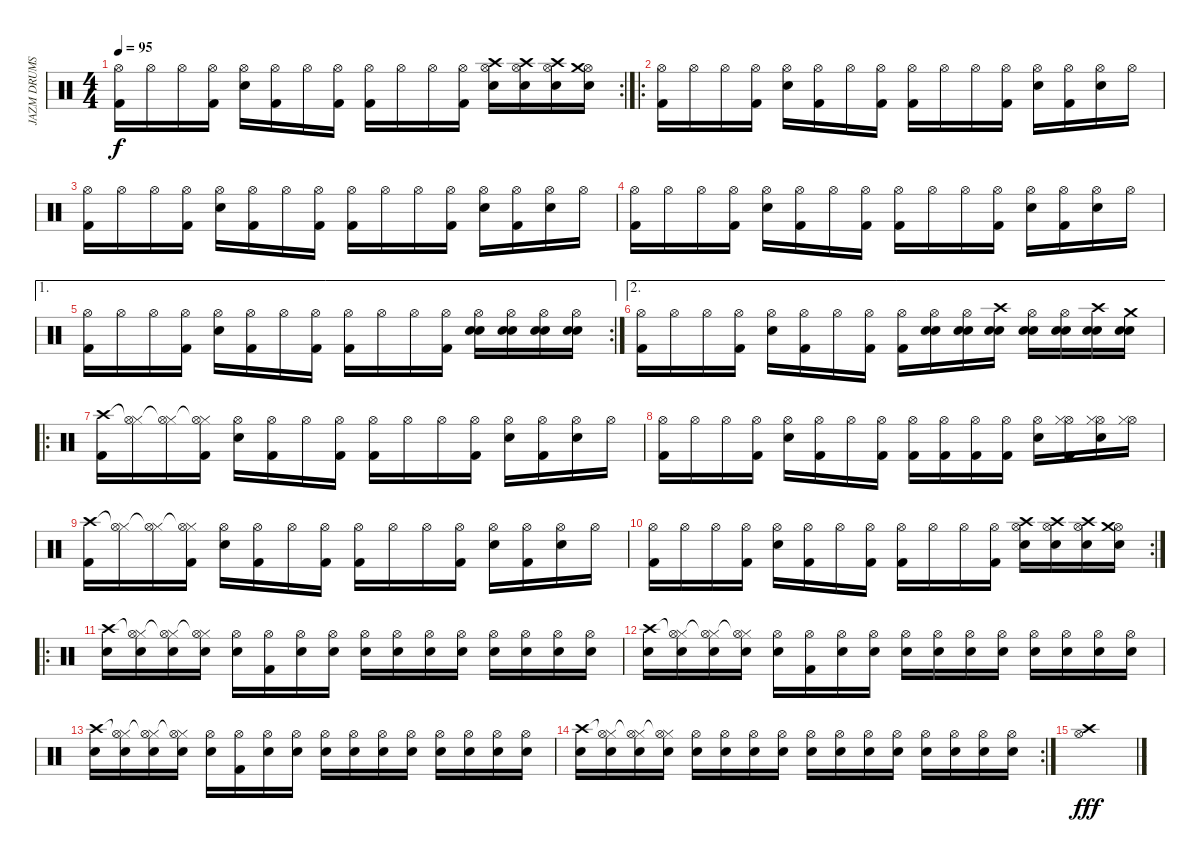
\track ("JAZM DRUMS" "JAZM DRUMS") {instrument percussion}
\staff {score}
\articulation defaults
\rc 2
\ts (4 4)
\tempo 95
\clef neutral
\ks c
("Hi-Hat (open)" "Kick (hit) 2").16{dy f} "Hi-Hat (open)".16 "Hi-Hat (open)".16 ("Hi-Hat (open)" "Kick (hit) 2").16 ("Hi-Hat (open)" "Electric Snare (hit)").16 ("Hi-Hat (open)" "Kick (hit) 2").16 "Hi-Hat (open)".16 ("Hi-Hat (open)" "Kick (hit) 2").16 ("Hi-Hat (open)" "Kick (hit) 2").16 "Hi-Hat (open)".16 "Hi-Hat (open)".16 ("Hi-Hat (open)" "Kick (hit) 2").16 ("Hi-Hat (open)" "Crash high (hit)" "Electric Snare (hit)").16 ("Hi-Hat (open)" "Crash high (hit)" "Electric Snare (hit)").16 ("Hi-Hat (open)" "Crash high (hit)" "Electric Snare (hit)").16 ("Hi-Hat (open)" "Crash medium (hit)" "Electric Snare (hit)").16 |
\ro
("Hi-Hat (open)" "Kick (hit) 2").16 "Hi-Hat (open)".16 "Hi-Hat (open)".16 ("Hi-Hat (open)" "Kick (hit) 2").16 ("Hi-Hat (open)" "Electric Snare (hit)").16 ("Hi-Hat (open)" "Kick (hit) 2").16 "Hi-Hat (open)".16 ("Hi-Hat (open)" "Kick (hit) 2").16 ("Hi-Hat (open)" "Kick (hit) 2").16 "Hi-Hat (open)".16 "Hi-Hat (open)".16 ("Hi-Hat (open)" "Kick (hit) 2").16 ("Hi-Hat (open)" "Electric Snare (hit)").16 ("Hi-Hat (open)" "Kick (hit) 2").16 ("Hi-Hat (open)" "Electric Snare (hit)").16 "Hi-Hat (open)".16 |
("Hi-Hat (open)" "Kick (hit) 2").16 "Hi-Hat (open)".16 "Hi-Hat (open)".16 ("Hi-Hat (open)" "Kick (hit) 2").16 ("Hi-Hat (open)" "Electric Snare (hit)").16 ("Hi-Hat (open)" "Kick (hit) 2").16 "Hi-Hat (open)".16 ("Hi-Hat (open)" "Kick (hit) 2").16 ("Hi-Hat (open)" "Kick (hit) 2").16 "Hi-Hat (open)".16 "Hi-Hat (open)".16 ("Hi-Hat (open)" "Kick (hit) 2").16 ("Hi-Hat (open)" "Electric Snare (hit)").16 ("Hi-Hat (open)" "Kick (hit) 2").16 ("Hi-Hat (open)" "Electric Snare (hit)").16 "Hi-Hat (open)".16 |
("Hi-Hat (open)" "Kick (hit) 2").16 "Hi-Hat (open)".16 "Hi-Hat (open)".16 ("Hi-Hat (open)" "Kick (hit) 2").16 ("Hi-Hat (open)" "Electric Snare (hit)").16 ("Hi-Hat (open)" "Kick (hit) 2").16 "Hi-Hat (open)".16 ("Hi-Hat (open)" "Kick (hit) 2").16 ("Hi-Hat (open)" "Kick (hit) 2").16 "Hi-Hat (open)".16 "Hi-Hat (open)".16 ("Hi-Hat (open)" "Kick (hit) 2").16 ("Hi-Hat (open)" "Electric Snare (hit)").16 ("Hi-Hat (open)" "Kick (hit) 2").16 ("Hi-Hat (open)" "Electric Snare (hit)").16 "Hi-Hat (open)".16 |
\ae 1
\rc 2
("Hi-Hat (open)" "Kick (hit) 2").16 "Hi-Hat (open)".16 "Hi-Hat (open)".16 ("Hi-Hat (open)" "Kick (hit) 2").16 ("Hi-Hat (open)" "Electric Snare (hit)").16 ("Hi-Hat (open)" "Kick (hit) 2").16 "Hi-Hat (open)".16 ("Hi-Hat (open)" "Kick (hit) 2").16 ("Hi-Hat (open)" "Kick (hit) 2").16 "Hi-Hat (open)".16 "Hi-Hat (open)".16 ("Hi-Hat (open)" "Kick (hit) 2").16 ("Hi-Hat (open)" "Electric Snare (hit)" "Electric Snare (hit)").16 ("Hi-Hat (open)" "Electric Snare (hit)" "Electric Snare (hit)").16 ("Hi-Hat (open)" "Electric Snare (hit)" "Electric Snare (hit)").16 ("Hi-Hat (open)" "Electric Snare (hit)" "Electric Snare (hit)").16 |
\ae 2
("Hi-Hat (open)" "Kick (hit) 2").16 "Hi-Hat (open)".16 "Hi-Hat (open)".16 ("Hi-Hat (open)" "Kick (hit) 2").16 ("Hi-Hat (open)" "Electric Snare (hit)").16 ("Hi-Hat (open)" "Kick (hit) 2").16 "Hi-Hat (open)".16 ("Hi-Hat (open)" "Kick (hit) 2").16 ("Hi-Hat (open)" "Kick (hit) 2").16 ("Hi-Hat (open)" "Electric Snare (hit)" "Electric Snare (hit)").16 ("Hi-Hat (open)" "Electric Snare (hit)" "Electric Snare (hit)").16 ("Crash high (hit)" "Electric Snare (hit)" "Electric Snare (hit)").16 ("Hi-Hat (open)" "Electric Snare (hit)" "Electric Snare (hit)").16 ("Hi-Hat (open)" "Electric Snare (hit)" "Electric Snare (hit)").16 ("Crash high (hit)" "Electric Snare (hit)" "Electric Snare (hit)").16 ("Crash medium (hit)" "Electric Snare (hit)" "Electric Snare (hit)").16 |
\ro
("Crash high (hit)" "Kick (hit) 2").16 ("Hi-Hat (closed)"{t} "Hi-Hat (open)").16 ("Hi-Hat (closed)"{t} "Hi-Hat (open)").16 ("Hi-Hat (closed)"{t} "Hi-Hat (open)" "Kick (hit) 2").16 ("Hi-Hat (open)" "Electric Snare (hit)").16 ("Hi-Hat (open)" "Kick (hit) 2").16 "Hi-Hat (open)".16 ("Hi-Hat (open)" "Kick (hit) 2").16 ("Hi-Hat (open)" "Kick (hit) 2").16 "Hi-Hat (open)".16 "Hi-Hat (open)".16 ("Hi-Hat (open)" "Kick (hit) 2").16 ("Hi-Hat (open)" "Electric Snare (hit)").16 ("Hi-Hat (open)" "Kick (hit) 2").16 ("Hi-Hat (open)" "Electric Snare (hit)").16 "Hi-Hat (open)".16 |
("Hi-Hat (open)" "Kick (hit) 2").16 "Hi-Hat (open)".16 "Hi-Hat (open)".16 ("Hi-Hat (open)" "Kick (hit) 2").16 ("Hi-Hat (open)" "Electric Snare (hit)").16 ("Hi-Hat (open)" "Kick (hit) 2").16 "Hi-Hat (open)".16 ("Hi-Hat (open)" "Kick (hit) 2").16 ("Hi-Hat (open)" "Kick (hit) 2").16 ("Hi-Hat (open)" "Kick (hit) 2").16 ("Hi-Hat (open)" "Kick (hit) 2").16 ("Hi-Hat (open)" "Kick (hit) 2").16 ("Hi-Hat (open)" "Electric Snare (hit)").16 ("Hi-Hat (open)" "Hi-Hat (closed)" "Kick (hit) 2").16 ("Hi-Hat (open)" "Hi-Hat (closed)" "Electric Snare (hit)").16 ("Hi-Hat (open)" "Hi-Hat (closed)").16 |
("Crash high (hit)" "Kick (hit) 2").16 ("Hi-Hat (closed)"{t} "Hi-Hat (open)").16 ("Hi-Hat (closed)"{t} "Hi-Hat (open)").16 ("Hi-Hat (closed)"{t} "Hi-Hat (open)" "Kick (hit) 2").16 ("Hi-Hat (open)" "Electric Snare (hit)").16 ("Hi-Hat (open)" "Kick (hit) 2").16 "Hi-Hat (open)".16 ("Hi-Hat (open)" "Kick (hit) 2").16 ("Hi-Hat (open)" "Kick (hit) 2").16 "Hi-Hat (open)".16 "Hi-Hat (open)".16 ("Hi-Hat (open)" "Kick (hit) 2").16 ("Hi-Hat (open)" "Electric Snare (hit)").16 ("Hi-Hat (open)" "Kick (hit) 2").16 ("Hi-Hat (open)" "Electric Snare (hit)").16 "Hi-Hat (open)".16 |
\rc 2
("Hi-Hat (open)" "Kick (hit) 2").16 "Hi-Hat (open)".16 "Hi-Hat (open)".16 ("Hi-Hat (open)" "Kick (hit) 2").16 ("Hi-Hat (open)" "Electric Snare (hit)").16 ("Hi-Hat (open)" "Kick (hit) 2").16 "Hi-Hat (open)".16 ("Hi-Hat (open)" "Kick (hit) 2").16 ("Hi-Hat (open)" "Kick (hit) 2").16 "Hi-Hat (open)".16 "Hi-Hat (open)".16 ("Hi-Hat (open)" "Kick (hit) 2").16 ("Hi-Hat (open)" "Crash high (hit)" "Electric Snare (hit)").16 ("Hi-Hat (open)" "Crash high (hit)" "Electric Snare (hit)").16 ("Hi-Hat (open)" "Crash high (hit)" "Electric Snare (hit)").16 ("Hi-Hat (open)" "Crash medium (hit)" "Electric Snare (hit)").16 |
\ro
("Crash high (hit)" "Electric Snare (hit)").16 ("Hi-Hat (closed)"{t} "Hi-Hat (open)" "Electric Snare (hit)").16 ("Hi-Hat (closed)"{t} "Hi-Hat (open)" "Electric Snare (hit)").16 ("Hi-Hat (closed)"{t} "Hi-Hat (open)" "Electric Snare (hit)").16 ("Hi-Hat (open)" "Electric Snare (hit)").16 ("Hi-Hat (open)" "Kick (hit) 2").16 ("Hi-Hat (open)" "Electric Snare (hit)").16 ("Hi-Hat (open)" "Electric Snare (hit)").16 ("Hi-Hat (open)" "Electric Snare (hit)").16 ("Hi-Hat (open)" "Electric Snare (hit)").16 ("Hi-Hat (open)" "Electric Snare (hit)").16 ("Hi-Hat (open)" "Electric Snare (hit)").16 ("Hi-Hat (open)" "Electric Snare (hit)").16 ("Hi-Hat (open)" "Electric Snare (hit)").16 ("Hi-Hat (open)" "Electric Snare (hit)").16 ("Hi-Hat (open)" "Electric Snare (hit)").16 |
("Crash high (hit)" "Electric Snare (hit)").16 ("Hi-Hat (closed)"{t} "Hi-Hat (open)" "Electric Snare (hit)").16 ("Hi-Hat (closed)"{t} "Hi-Hat (open)" "Electric Snare (hit)").16 ("Hi-Hat (closed)"{t} "Hi-Hat (open)" "Electric Snare (hit)").16 ("Hi-Hat (open)" "Electric Snare (hit)").16 ("Hi-Hat (open)" "Kick (hit) 2").16 ("Hi-Hat (open)" "Electric Snare (hit)").16 ("Hi-Hat (open)" "Electric Snare (hit)").16 ("Hi-Hat (open)" "Electric Snare (hit)").16 ("Hi-Hat (open)" "Electric Snare (hit)").16 ("Hi-Hat (open)" "Electric Snare (hit)").16 ("Hi-Hat (open)" "Electric Snare (hit)").16 ("Hi-Hat (open)" "Electric Snare (hit)").16 ("Hi-Hat (open)" "Electric Snare (hit)").16 ("Hi-Hat (open)" "Electric Snare (hit)").16 ("Hi-Hat (open)" "Electric Snare (hit)").16 |
("Crash high (hit)" "Electric Snare (hit)").16 ("Hi-Hat (closed)"{t} "Hi-Hat (open)" "Electric Snare (hit)").16 ("Hi-Hat (closed)"{t} "Hi-Hat (open)" "Electric Snare (hit)").16 ("Hi-Hat (closed)"{t} "Hi-Hat (open)" "Electric Snare (hit)").16 ("Hi-Hat (open)" "Electric Snare (hit)").16 ("Hi-Hat (open)" "Kick (hit) 2").16 ("Hi-Hat (open)" "Electric Snare (hit)").16 ("Hi-Hat (open)" "Electric Snare (hit)").16 ("Hi-Hat (open)" "Electric Snare (hit)").16 ("Hi-Hat (open)" "Electric Snare (hit)").16 ("Hi-Hat (open)" "Electric Snare (hit)").16 ("Hi-Hat (open)" "Electric Snare (hit)").16 ("Hi-Hat (open)" "Electric Snare (hit)").16 ("Hi-Hat (open)" "Electric Snare (hit)").16 ("Hi-Hat (open)" "Electric Snare (hit)").16 ("Hi-Hat (open)" "Electric Snare (hit)").16 |
\rc 2
("Crash high (hit)" "Electric Snare (hit)").16 ("Hi-Hat (closed)"{t} "Hi-Hat (open)" "Electric Snare (hit)").16 ("Hi-Hat (closed)"{t} "Hi-Hat (open)" "Electric Snare (hit)").16 ("Hi-Hat (closed)"{t} "Hi-Hat (open)" "Electric Snare (hit)").16 ("Hi-Hat (open)" "Electric Snare (hit)").16 ("Hi-Hat (open)" "Electric Snare (hit)").16 ("Hi-Hat (open)" "Electric Snare (hit)").16 ("Hi-Hat (open)" "Electric Snare (hit)").16 ("Hi-Hat (open)" "Electric Snare (hit)").16 ("Hi-Hat (open)" "Electric Snare (hit)").16 ("Hi-Hat (open)" "Electric Snare (hit)").16 ("Hi-Hat (open)" "Electric Snare (hit)").16 ("Hi-Hat (open)" "Electric Snare (hit)").16 ("Hi-Hat (open)" "Electric Snare (hit)").16 ("Hi-Hat (open)" "Electric Snare (hit)").16 ("Hi-Hat (open)" "Electric Snare (hit)").16 |
("Hi-Hat (open)" "Crash high (hit)").1{dy fff}
